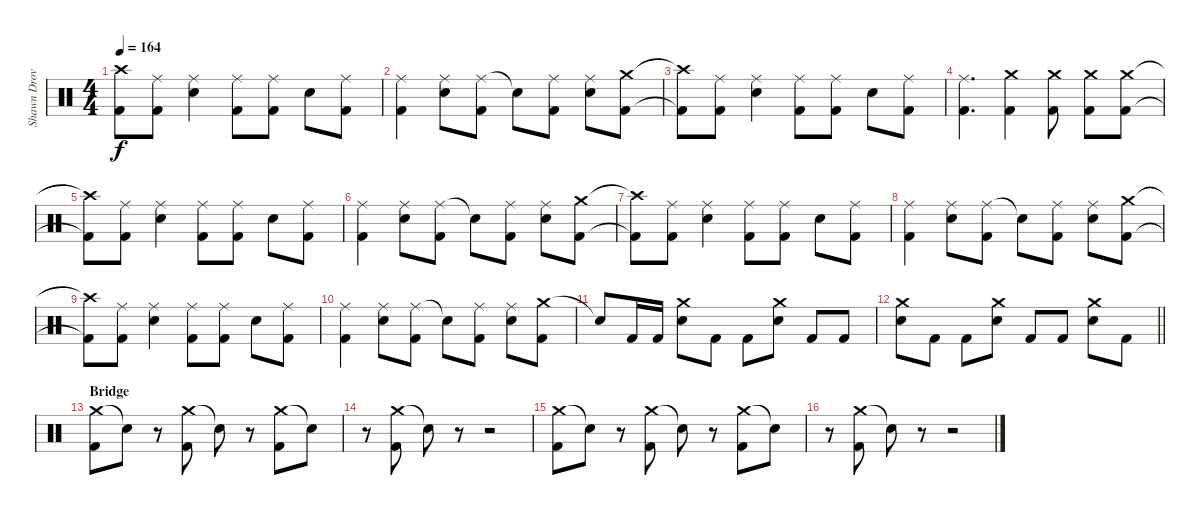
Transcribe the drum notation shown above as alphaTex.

\track ("Shawn Drover" "Shawn Drov") {instrument percussion}
\staff {score}
\articulation defaults
\ts (4 4)
\tempo 164
\clef neutral
\ks c
("Crash high (hit)"{t} "Kick (hit) 2"{t}).8{dy f} ("Ride (middle)" "Kick (hit) 2").8 ("Ride (middle)" "Snare (hit) 2").4 ("Ride (middle)" "Kick (hit) 2").8 ("Ride (middle)" "Kick (hit) 2").8 "Snare (hit) 2".8 ("Ride (middle)" "Kick (hit) 2").8 |
("Ride (middle)" "Kick (hit) 2").4 ("Ride (middle)" "Snare (hit) 2").8 ("Ride (middle)" "Kick (hit) 2").8 "Snare (hit)"{t}.8 ("Ride (middle)" "Kick (hit) 2").8 ("Ride (middle)" "Snare (hit) 2").8 ("Crash medium (hit)" "Kick (hit) 2").8 |
("Crash high (hit)"{t} "Kick (hit) 2"{t}).8 ("Ride (middle)" "Kick (hit) 2").8 ("Ride (middle)" "Snare (hit) 2").4 ("Ride (middle)" "Kick (hit) 2").8 ("Ride (middle)" "Kick (hit) 2").8 "Snare (hit) 2".8 ("Ride (middle)" "Kick (hit) 2").8 |
("Ride (middle)" "Kick (hit) 2").4{d} ("Crash medium (hit)" "Kick (hit) 2").4 ("Crash medium (hit)" "Kick (hit) 2").8 ("Crash medium (hit)" "Kick (hit) 2").8 ("Crash medium (hit)" "Kick (hit) 2").8 |
("Crash high (hit)"{t} "Kick (hit) 2"{t}).8 ("Ride (middle)" "Kick (hit) 2").8 ("Ride (middle)" "Snare (hit) 2").4 ("Ride (middle)" "Kick (hit) 2").8 ("Ride (middle)" "Kick (hit) 2").8 "Snare (hit) 2".8 ("Ride (middle)" "Kick (hit) 2").8 |
("Ride (middle)" "Kick (hit) 2").4 ("Ride (middle)" "Snare (hit) 2").8 ("Ride (middle)" "Kick (hit) 2").8 "Snare (hit)"{t}.8 ("Ride (middle)" "Kick (hit) 2").8 ("Ride (middle)" "Snare (hit) 2").8 ("Crash medium (hit)" "Kick (hit) 2").8 |
("Crash high (hit)"{t} "Kick (hit) 2"{t}).8 ("Ride (middle)" "Kick (hit) 2").8 ("Ride (middle)" "Snare (hit) 2").4 ("Ride (middle)" "Kick (hit) 2").8 ("Ride (middle)" "Kick (hit) 2").8 "Snare (hit) 2".8 ("Ride (middle)" "Kick (hit) 2").8 |
("Ride (middle)" "Kick (hit) 2").4 ("Ride (middle)" "Snare (hit) 2").8 ("Ride (middle)" "Kick (hit) 2").8 "Snare (hit)"{t}.8 ("Ride (middle)" "Kick (hit) 2").8 ("Ride (middle)" "Snare (hit) 2").8 ("Crash medium (hit)" "Kick (hit) 2").8 |
("Crash high (hit)"{t} "Kick (hit) 2"{t}).8 ("Ride (middle)" "Kick (hit) 2").8 ("Ride (middle)" "Snare (hit) 2").4 ("Ride (middle)" "Kick (hit) 2").8 ("Ride (middle)" "Kick (hit) 2").8 "Snare (hit) 2".8 ("Ride (middle)" "Kick (hit) 2").8 |
("Ride (middle)" "Kick (hit) 2").4 ("Ride (middle)" "Snare (hit) 2").8 ("Ride (middle)" "Kick (hit) 2").8 "Snare (hit)"{t}.8 ("Ride (middle)" "Kick (hit) 2").8 ("Ride (middle)" "Snare (hit) 2").8 ("Crash medium (hit)" "Kick (hit) 2").8 |
"Snare (hit)"{t}.8 "Kick (hit) 2".16 "Kick (hit) 2".16 ("Crash medium (hit)" "Snare (hit) 2").8 "Kick (hit) 2".8 "Kick (hit) 2".8 ("Crash medium (hit)" "Snare (hit) 2").8 "Kick (hit) 2".8 "Kick (hit) 2".8 |
\barLineRight lightlight
("Crash medium (hit)" "Snare (hit) 2").8 "Kick (hit) 2".8 "Kick (hit) 2".8 ("Crash medium (hit)" "Snare (hit) 2").8 "Kick (hit) 2".8 "Kick (hit) 2".8 ("Crash medium (hit)" "Snare (hit) 2").8 "Kick (hit) 2".8 |
\section ("" "Bridge")
("Crash medium (hit)" "Kick (hit) 2").8 "Snare (hit)"{t}.8 r.8 ("Crash medium (hit)" "Kick (hit) 2").8 "Snare (hit)"{t}.8 r.8 ("Crash medium (hit)" "Kick (hit) 2").8 "Snare (hit)"{t}.8 |
r.8 ("Crash medium (hit)" "Kick (hit) 2").8 "Snare (hit)"{t}.8 r.8 r.2 |
("Crash medium (hit)" "Kick (hit) 2").8 "Snare (hit)"{t}.8 r.8 ("Crash medium (hit)" "Kick (hit) 2").8 "Snare (hit)"{t}.8 r.8 ("Crash medium (hit)" "Kick (hit) 2").8 "Snare (hit)"{t}.8 |
r.8 ("Crash medium (hit)" "Kick (hit) 2").8 "Snare (hit)"{t}.8 r.8 r.2
